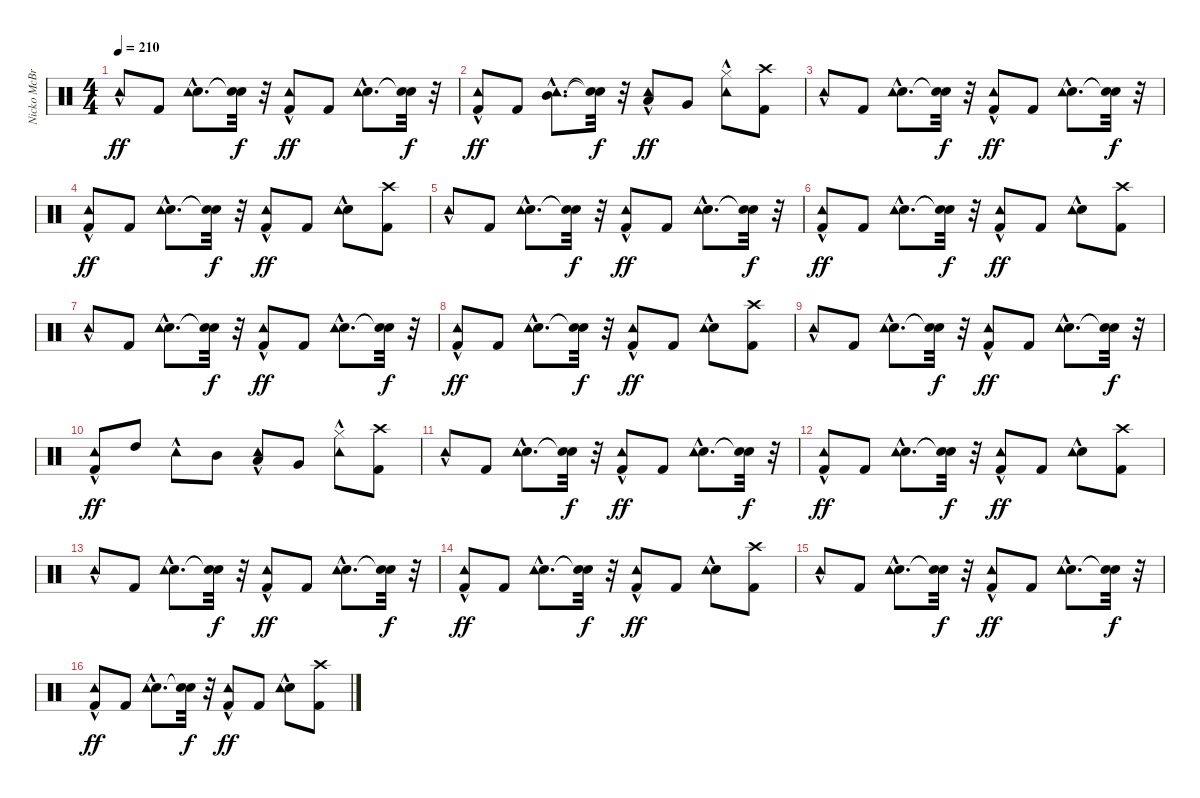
\track ("Nicko McBrain" "Nicko McBr") {instrument percussion}
\staff {score}
\articulation defaults
\ts (4 4)
\tempo 210
\clef neutral
\ks c "Tambourine (hit)"{hac}.8{dy ff} "Kick (hit) 2".8
("Snare (hit) 2"{hac} "Tambourine (hit)"{hac}).8{d} ("Snare (hit)"{t} "Snare (hit)"{t}).32{dy f} r.32 ("Kick (hit) 2" "Tambourine (hit)"{hac}).8{dy ff} "Kick (hit) 2".8 ("Snare (hit) 2"{hac} "Tambourine (hit)"{hac}).8{d} ("Snare (hit)"{t} "Snare (hit)"{t}).32{dy f} r.32 |
("Kick (hit) 2" "Tambourine (hit)"{hac}).8{dy ff} "Kick (hit) 2".8 ("Mid Tom (hit)"{hac} "Tambourine (hit)"{hac}).8{d} ("Snare (hit)"{t} "Snare (hit)"{t}).32{dy f} r.32 ("Low Tom (hit)" "Tambourine (hit)"{hac}).8{dy ff} "Very Low Tom (hit)".8 ("Hi-Hat (closed)" "Tambourine (hit)"{hac}).8 ("Kick (hit) 2" "Crash high (hit)").8 |
"Tambourine (hit)"{hac}.8 "Kick (hit) 2".8 ("Snare (hit) 2"{hac} "Tambourine (hit)"{hac}).8{d} ("Snare (hit)"{t} "Snare (hit)"{t}).32{dy f} r.32 ("Kick (hit) 2" "Tambourine (hit)"{hac}).8{dy ff} "Kick (hit) 2".8 ("Snare (hit) 2"{hac} "Tambourine (hit)"{hac}).8{d} ("Snare (hit)"{t} "Snare (hit)"{t}).32{dy f} r.32 |
("Kick (hit) 2" "Tambourine (hit)"{hac}).8{dy ff} "Kick (hit) 2".8 ("Snare (hit) 2"{hac} "Tambourine (hit)"{hac}).8{d} ("Snare (hit)"{t} "Snare (hit)"{t}).32{dy f} r.32 ("Kick (hit) 2" "Tambourine (hit)"{hac}).8{dy ff} "Kick (hit) 2".8 ("Snare (hit) 2" "Tambourine (hit)"{hac}).8 ("Kick (hit) 2" "Crash high (hit)").8 |
"Tambourine (hit)"{hac}.8 "Kick (hit) 2".8 ("Snare (hit) 2"{hac} "Tambourine (hit)"{hac}).8{d} ("Snare (hit)"{t} "Snare (hit)"{t}).32{dy f} r.32 ("Kick (hit) 2" "Tambourine (hit)"{hac}).8{dy ff} "Kick (hit) 2".8 ("Snare (hit) 2"{hac} "Tambourine (hit)"{hac}).8{d} ("Snare (hit)"{t} "Snare (hit)"{t}).32{dy f} r.32 |
("Kick (hit) 2" "Tambourine (hit)"{hac}).8{dy ff} "Kick (hit) 2".8 ("Snare (hit) 2"{hac} "Tambourine (hit)"{hac}).8{d} ("Snare (hit)"{t} "Snare (hit)"{t}).32{dy f} r.32 ("Kick (hit) 2" "Tambourine (hit)"{hac}).8{dy ff} "Kick (hit) 2".8 ("Snare (hit) 2" "Tambourine (hit)"{hac}).8 ("Kick (hit) 2" "Crash high (hit)").8 |
"Tambourine (hit)"{hac}.8 "Kick (hit) 2".8 ("Snare (hit) 2"{hac} "Tambourine (hit)"{hac}).8{d} ("Snare (hit)"{t} "Snare (hit)"{t}).32{dy f} r.32 ("Kick (hit) 2" "Tambourine (hit)"{hac}).8{dy ff} "Kick (hit) 2".8 ("Snare (hit) 2"{hac} "Tambourine (hit)"{hac}).8{d} ("Snare (hit)"{t} "Snare (hit)"{t}).32{dy f} r.32 |
("Kick (hit) 2" "Tambourine (hit)"{hac}).8{dy ff} "Kick (hit) 2".8 ("Snare (hit) 2"{hac} "Tambourine (hit)"{hac}).8{d} ("Snare (hit)"{t} "Snare (hit)"{t}).32{dy f} r.32 ("Kick (hit) 2" "Tambourine (hit)"{hac}).8{dy ff} "Kick (hit) 2".8 ("Snare (hit) 2" "Tambourine (hit)"{hac}).8 ("Kick (hit) 2" "Crash high (hit)").8 |
"Tambourine (hit)"{hac}.8 "Kick (hit) 2".8 ("Snare (hit) 2"{hac} "Tambourine (hit)"{hac}).8{d} ("Snare (hit)"{t} "Snare (hit)"{t}).32{dy f} r.32 ("Kick (hit) 2" "Tambourine (hit)"{hac}).8{dy ff} "Kick (hit) 2".8 ("Snare (hit) 2"{hac} "Tambourine (hit)"{hac}).8{d} ("Snare (hit)"{t} "Snare (hit)"{t}).32{dy f} r.32 |
("Kick (hit) 2" "Tambourine (hit)"{hac}).8{dy ff} "High Tom (hit)".8 "Tambourine (hit)"{hac}.8 "Mid Tom (hit)".8 ("Low Tom (hit)" "Tambourine (hit)"{hac}).8 "Very Low Tom (hit)".8 ("Hi-Hat (closed)" "Tambourine (hit)"{hac}).8 ("Kick (hit) 2" "Crash high (hit)").8 |
"Tambourine (hit)"{hac}.8 "Kick (hit) 2".8 ("Snare (hit) 2"{hac} "Tambourine (hit)"{hac}).8{d} ("Snare (hit)"{t} "Snare (hit)"{t}).32{dy f} r.32 ("Kick (hit) 2" "Tambourine (hit)"{hac}).8{dy ff} "Kick (hit) 2".8 ("Snare (hit) 2"{hac} "Tambourine (hit)"{hac}).8{d} ("Snare (hit)"{t} "Snare (hit)"{t}).32{dy f} r.32 |
("Kick (hit) 2" "Tambourine (hit)"{hac}).8{dy ff} "Kick (hit) 2".8 ("Snare (hit) 2"{hac} "Tambourine (hit)"{hac}).8{d} ("Snare (hit)"{t} "Snare (hit)"{t}).32{dy f} r.32 ("Kick (hit) 2" "Tambourine (hit)"{hac}).8{dy ff} "Kick (hit) 2".8 ("Snare (hit) 2" "Tambourine (hit)"{hac}).8 ("Kick (hit) 2" "Crash high (hit)").8 |
"Tambourine (hit)"{hac}.8 "Kick (hit) 2".8 ("Snare (hit) 2"{hac} "Tambourine (hit)"{hac}).8{d} ("Snare (hit)"{t} "Snare (hit)"{t}).32{dy f} r.32 ("Kick (hit) 2" "Tambourine (hit)"{hac}).8{dy ff} "Kick (hit) 2".8 ("Snare (hit) 2"{hac} "Tambourine (hit)"{hac}).8{d} ("Snare (hit)"{t} "Snare (hit)"{t}).32{dy f} r.32 |
("Kick (hit) 2" "Tambourine (hit)"{hac}).8{dy ff} "Kick (hit) 2".8 ("Snare (hit) 2"{hac} "Tambourine (hit)"{hac}).8{d} ("Snare (hit)"{t} "Snare (hit)"{t}).32{dy f} r.32 ("Kick (hit) 2" "Tambourine (hit)"{hac}).8{dy ff} "Kick (hit) 2".8 ("Snare (hit) 2" "Tambourine (hit)"{hac}).8 ("Kick (hit) 2" "Crash high (hit)").8 |
"Tambourine (hit)"{hac}.8 "Kick (hit) 2".8 ("Snare (hit) 2"{hac} "Tambourine (hit)"{hac}).8{d} ("Snare (hit)"{t} "Snare (hit)"{t}).32{dy f} r.32 ("Kick (hit) 2" "Tambourine (hit)"{hac}).8{dy ff} "Kick (hit) 2".8 ("Snare (hit) 2"{hac} "Tambourine (hit)"{hac}).8{d} ("Snare (hit)"{t} "Snare (hit)"{t}).32{dy f} r.32 |
("Kick (hit) 2" "Tambourine (hit)"{hac}).8{dy ff} "Kick (hit) 2".8 ("Snare (hit) 2"{hac} "Tambourine (hit)"{hac}).8{d} ("Snare (hit)"{t} "Snare (hit)"{t}).32{dy f} r.32 ("Kick (hit) 2" "Tambourine (hit)"{hac}).8{dy ff} "Kick (hit) 2".8 ("Snare (hit) 2" "Tambourine (hit)"{hac}).8 ("Kick (hit) 2" "Crash high (hit)").8
